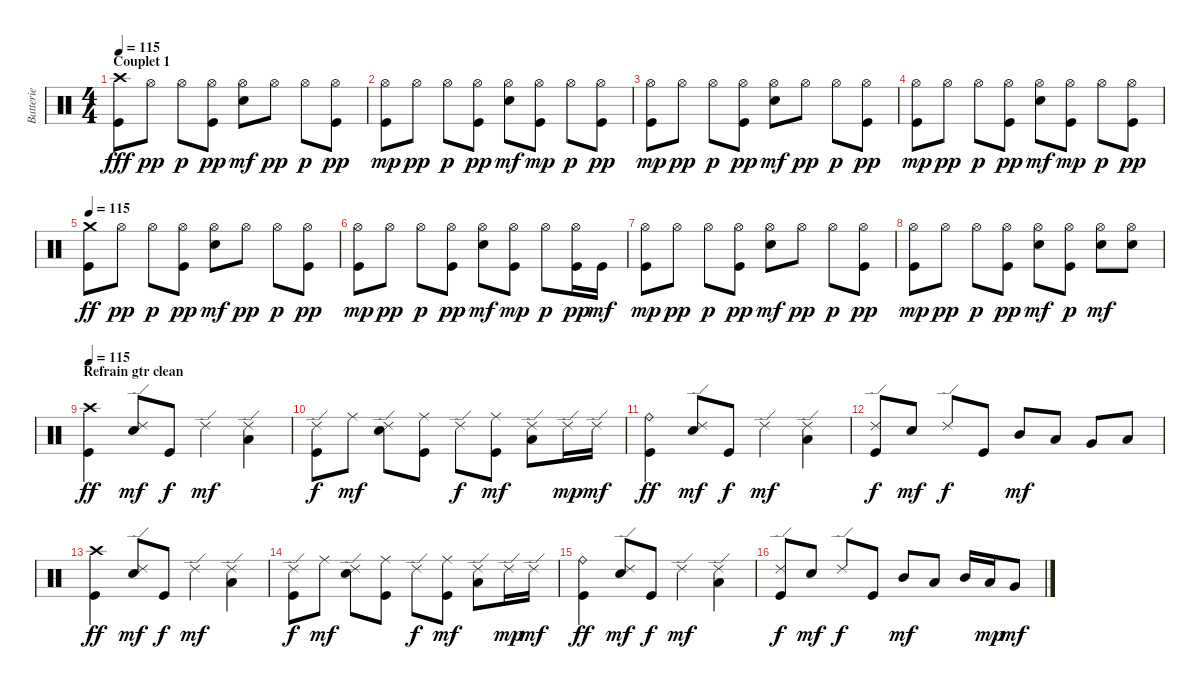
\track ("Batterie" "Batterie") {instrument percussion}
\staff {score}
\articulation defaults
\ts (4 4)
\section ("" "Couplet 1")
\tempo 115
\clef neutral
\ks c
("Crash high (hit)" "Kick (hit)").8{dy fff} "Hi-Hat (open)".8{dy pp} "Hi-Hat (open)".8{dy p} ("Hi-Hat (open)" "Kick (hit)").8{dy pp} ("Hi-Hat (open)" "Electric Snare (hit)").8{dy mf} "Hi-Hat (open)".8{dy pp} "Hi-Hat (open)".8{dy p} ("Hi-Hat (open)" "Kick (hit)").8{dy pp} |
("Hi-Hat (open)" "Kick (hit)").8{dy mp} "Hi-Hat (open)".8{dy pp} "Hi-Hat (open)".8{dy p} ("Hi-Hat (open)" "Kick (hit)").8{dy pp} ("Hi-Hat (open)" "Electric Snare (hit)").8{dy mf} ("Hi-Hat (open)" "Kick (hit)").8{dy mp} "Hi-Hat (open)".8{dy p} ("Hi-Hat (open)" "Kick (hit)").8{dy pp} |
("Hi-Hat (open)" "Kick (hit)").8{dy mp} "Hi-Hat (open)".8{dy pp} "Hi-Hat (open)".8{dy p} ("Hi-Hat (open)" "Kick (hit)").8{dy pp} ("Hi-Hat (open)" "Electric Snare (hit)").8{dy mf} "Hi-Hat (open)".8{dy pp} "Hi-Hat (open)".8{dy p} ("Hi-Hat (open)" "Kick (hit)").8{dy pp} |
("Hi-Hat (open)" "Kick (hit)").8{dy mp} "Hi-Hat (open)".8{dy pp} "Hi-Hat (open)".8{dy p} ("Hi-Hat (open)" "Kick (hit)").8{dy pp} ("Hi-Hat (open)" "Electric Snare (hit)").8{dy mf} ("Hi-Hat (open)" "Kick (hit)").8{dy mp} "Hi-Hat (open)".8{dy p} ("Hi-Hat (open)" "Kick (hit)").8{dy pp} |
\tempo 115
("Crash medium (hit)" "Kick (hit)").8{dy ff} "Hi-Hat (open)".8{dy pp} "Hi-Hat (open)".8{dy p} ("Hi-Hat (open)" "Kick (hit)").8{dy pp} ("Hi-Hat (open)" "Electric Snare (hit)").8{dy mf} "Hi-Hat (open)".8{dy pp} "Hi-Hat (open)".8{dy p} ("Hi-Hat (open)" "Kick (hit)").8{dy pp} |
("Hi-Hat (open)" "Kick (hit)").8{dy mp} "Hi-Hat (open)".8{dy pp} "Hi-Hat (open)".8{dy p} ("Hi-Hat (open)" "Kick (hit)").8{dy pp} ("Hi-Hat (open)" "Electric Snare (hit)").8{dy mf} ("Hi-Hat (open)" "Kick (hit)").8{dy mp} "Hi-Hat (open)".8{dy p} ("Hi-Hat (open)" "Kick (hit)").16{dy pp} "Kick (hit)".16{dy mf} |
("Hi-Hat (open)" "Kick (hit)").8{dy mp} "Hi-Hat (open)".8{dy pp} "Hi-Hat (open)".8{dy p} ("Hi-Hat (open)" "Kick (hit)").8{dy pp} ("Hi-Hat (open)" "Electric Snare (hit)").8{dy mf} "Hi-Hat (open)".8{dy pp} "Hi-Hat (open)".8{dy p} ("Hi-Hat (open)" "Kick (hit)").8{dy pp} |
("Hi-Hat (open)" "Kick (hit)").8{dy mp} "Hi-Hat (open)".8{dy pp} "Hi-Hat (open)".8{dy p} ("Hi-Hat (open)" "Kick (hit)").8{dy pp} ("Hi-Hat (open)" "Electric Snare (hit)").8{dy mf} ("Hi-Hat (open)" "Kick (hit)").8{dy p} ("Hi-Hat (open)" "Electric Snare (hit)").8{dy mf} ("Hi-Hat (open)" "Electric Snare (hit)").8 |
\section ("" "Refrain gtr clean")
\tempo 115
("Crash high (hit)" "Kick (hit)").4{dy ff} ("Ride (edge) 2" "Electric Snare (hit)").8{dy mf} "Kick (hit)".8{dy f} "Ride (edge) 2".4{dy mf} ("Ride (edge) 2" "Low Tom (hit)").4 |
("Ride (edge) 2" "Kick (hit)").8{dy f} "Ride (middle)".8{dy mf} ("Ride (edge) 2" "Electric Snare (hit)").8 ("Ride (middle)" "Kick (hit)").8 "Ride (edge) 2".8{dy f} ("Ride (middle)" "Kick (hit)").8{dy mf} ("Ride (edge) 2" "Low Tom (hit)").8 "Ride (edge) 2".16{dy mp} "Ride (edge) 2".16{dy mf} |
("Ride (bell)" "Kick (hit)").4{dy ff} ("Ride (edge) 2" "Electric Snare (hit)").8{dy mf} "Kick (hit)".8{dy f} "Ride (edge) 2".4{dy mf} ("Ride (edge) 2" "Low Tom (hit)").4 |
("Ride (edge) 2" "Kick (hit)").8{dy f} "Electric Snare (hit)".8{dy mf} "Ride (edge) 2".8{dy f} "Kick (hit)".8 "Mid Tom (hit)".8{dy mf} "Low Tom (hit)".8 "Very Low Tom (hit)".8 "Low Floor Tom (hit)".8 |
("Crash high (hit)" "Kick (hit)").4{dy ff} ("Ride (edge) 2" "Electric Snare (hit)").8{dy mf} "Kick (hit)".8{dy f} "Ride (edge) 2".4{dy mf} ("Ride (edge) 2" "Low Tom (hit)").4 |
("Ride (edge) 2" "Kick (hit)").8{dy f} "Ride (middle)".8{dy mf} ("Ride (edge) 2" "Electric Snare (hit)").8 ("Ride (middle)" "Kick (hit)").8 "Ride (edge) 2".8{dy f} ("Ride (middle)" "Kick (hit)").8{dy mf} ("Ride (edge) 2" "Low Tom (hit)").8 "Ride (edge) 2".16{dy mp} "Ride (edge) 2".16{dy mf} |
("Ride (bell)" "Kick (hit)").4{dy ff} ("Ride (edge) 2" "Electric Snare (hit)").8{dy mf} "Kick (hit)".8{dy f} "Ride (edge) 2".4{dy mf} ("Ride (edge) 2" "Low Tom (hit)").4 |
("Ride (edge) 2" "Kick (hit)").8{dy f} "Electric Snare (hit)".8{dy mf} "Ride (edge) 2".8{dy f} "Kick (hit)".8 "Mid Tom (hit)".8{dy mf} "Low Tom (hit)".8 "Mid Tom (hit)".16 "Low Tom (hit)".16{dy mp} "Very Low Tom (hit)".8{dy mf}
